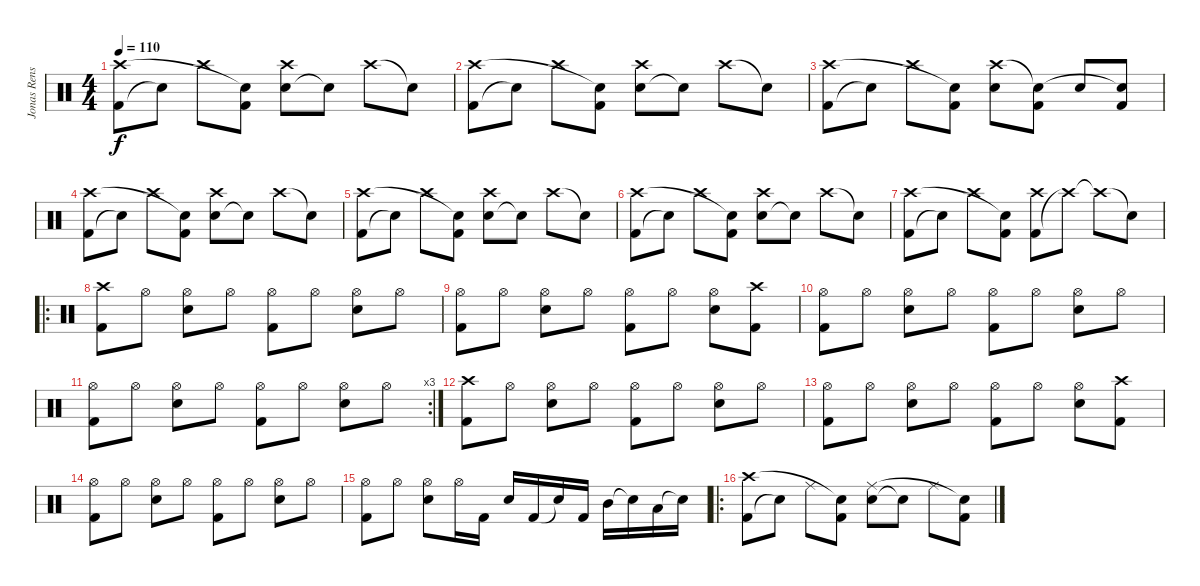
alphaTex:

\track ("Jonas Renske" "Jonas Rens") {instrument percussion}
\staff {score}
\articulation defaults
\ts (4 4)
\tempo 110
\clef neutral
\ks c
("Kick (hit) 2" "Crash high (hit)").8{dy f} "Snare (hit)"{t}.8 "Crash high (hit)".8 ("Kick (hit) 2" "Snare (hit)"{t}).8 ("Electric Snare (hit)" "Crash high (hit)").8 "Snare (hit)"{t}.8 "Crash high (hit)".8 "Snare (hit)"{t}.8 |
("Kick (hit) 2" "Crash high (hit)").8 "Snare (hit)"{t}.8 "Crash high (hit)".8 ("Kick (hit) 2" "Snare (hit)"{t}).8 ("Electric Snare (hit)" "Crash high (hit)").8 "Snare (hit)"{t}.8 "Crash high (hit)".8 "Snare (hit)"{t}.8 |
("Kick (hit) 2" "Crash high (hit)").8 "Snare (hit)"{t}.8 "Crash high (hit)".8 ("Kick (hit) 2" "Snare (hit)"{t}).8 ("Electric Snare (hit)" "Crash high (hit)").8 ("Kick (hit) 2" "Snare (hit)"{t}).8 "Electric Snare (hit)".8 ("Kick (hit) 2" "Snare (hit)"{t}).8 |
("Kick (hit) 2" "Crash high (hit)").8 "Snare (hit)"{t}.8 "Crash high (hit)".8 ("Kick (hit) 2" "Snare (hit)"{t}).8 ("Electric Snare (hit)" "Crash high (hit)").8 "Snare (hit)"{t}.8 "Crash high (hit)".8 "Snare (hit)"{t}.8 |
("Kick (hit) 2" "Crash high (hit)").8 "Snare (hit)"{t}.8 "Crash high (hit)".8 ("Kick (hit) 2" "Snare (hit)"{t}).8 ("Electric Snare (hit)" "Crash high (hit)").8 "Snare (hit)"{t}.8 "Crash high (hit)".8 "Snare (hit)"{t}.8 |
("Kick (hit) 2" "Crash high (hit)").8 "Snare (hit)"{t}.8 "Crash high (hit)".8 ("Kick (hit) 2" "Snare (hit)"{t}).8 ("Electric Snare (hit)" "Crash high (hit)").8 "Snare (hit)"{t}.8 "Crash high (hit)".8 "Snare (hit)"{t}.8 |
("Kick (hit) 2" "Crash high (hit)").8 "Snare (hit)"{t}.8 "Crash high (hit)".8 ("Kick (hit) 2" "Snare (hit)"{t}).8 ("Kick (hit) 2" "Crash high (hit)").8 "Crash high (hit)"{t}.8 "Crash high (hit)"{t}.8 "Snare (hit)"{t}.8 |
\ro
("Kick (hit) 2" "Crash high (hit)").8 "Hi-Hat (open)".8 ("Electric Snare (hit)" "Hi-Hat (open)").8 "Hi-Hat (open)".8 ("Kick (hit) 2" "Hi-Hat (open)").8 "Hi-Hat (open)".8 ("Electric Snare (hit)" "Hi-Hat (open)").8 "Hi-Hat (open)".8 |
("Kick (hit) 2" "Hi-Hat (open)").8 "Hi-Hat (open)".8 ("Electric Snare (hit)" "Hi-Hat (open)").8 "Hi-Hat (open)".8 ("Kick (hit) 2" "Hi-Hat (open)").8 "Hi-Hat (open)".8 ("Electric Snare (hit)" "Hi-Hat (open)").8 ("Kick (hit) 2" "Crash high (hit)").8 |
("Kick (hit) 2" "Hi-Hat (open)").8 "Hi-Hat (open)".8 ("Electric Snare (hit)" "Hi-Hat (open)").8 "Hi-Hat (open)".8 ("Kick (hit) 2" "Hi-Hat (open)").8 "Hi-Hat (open)".8 ("Electric Snare (hit)" "Hi-Hat (open)").8 "Hi-Hat (open)".8 |
\rc 3
("Kick (hit) 2" "Hi-Hat (open)").8 "Hi-Hat (open)".8 ("Electric Snare (hit)" "Hi-Hat (open)").8 "Hi-Hat (open)".8 ("Kick (hit) 2" "Hi-Hat (open)").8 "Hi-Hat (open)".8 ("Electric Snare (hit)" "Hi-Hat (open)").8 "Hi-Hat (open)".8 |
("Kick (hit) 2" "Crash high (hit)").8 "Hi-Hat (open)".8 ("Electric Snare (hit)" "Hi-Hat (open)").8 "Hi-Hat (open)".8 ("Kick (hit) 2" "Hi-Hat (open)").8 "Hi-Hat (open)".8 ("Electric Snare (hit)" "Hi-Hat (open)").8 "Hi-Hat (open)".8 |
("Kick (hit) 2" "Hi-Hat (open)").8 "Hi-Hat (open)".8 ("Electric Snare (hit)" "Hi-Hat (open)").8 "Hi-Hat (open)".8 ("Kick (hit) 2" "Hi-Hat (open)").8 "Hi-Hat (open)".8 ("Electric Snare (hit)" "Hi-Hat (open)").8 ("Kick (hit) 2" "Crash high (hit)").8 |
("Kick (hit) 2" "Hi-Hat (open)").8 "Hi-Hat (open)".8 ("Electric Snare (hit)" "Hi-Hat (open)").8 "Hi-Hat (open)".8 ("Kick (hit) 2" "Hi-Hat (open)").8 "Hi-Hat (open)".8 ("Electric Snare (hit)" "Hi-Hat (open)").8 "Hi-Hat (open)".8 |
("Kick (hit) 2" "Hi-Hat (open)").8 "Hi-Hat (open)".8 ("Electric Snare (hit)" "Hi-Hat (open)").8 "Hi-Hat (open)".16 "Kick (hit) 2".16 "Electric Snare (hit)".16 "Kick (hit) 2".16 "Snare (hit)"{t}.16 "Kick (hit) 2".16 "Mid Tom (hit)".16 "Snare (hit)"{t}.16 "Low Tom (hit)".16 "Snare (hit)"{t}.16 |
\ro
("Kick (hit) 2" "Crash high (hit)").8 "Snare (hit)"{t}.8 "Ride (middle)".8 ("Kick (hit) 2" "Snare (hit)"{t}).8 ("Electric Snare (hit)" "Ride (middle)").8 "Snare (hit)"{t}.8 "Ride (middle)".8 ("Kick (hit) 2" "Snare (hit)"{t}).8
